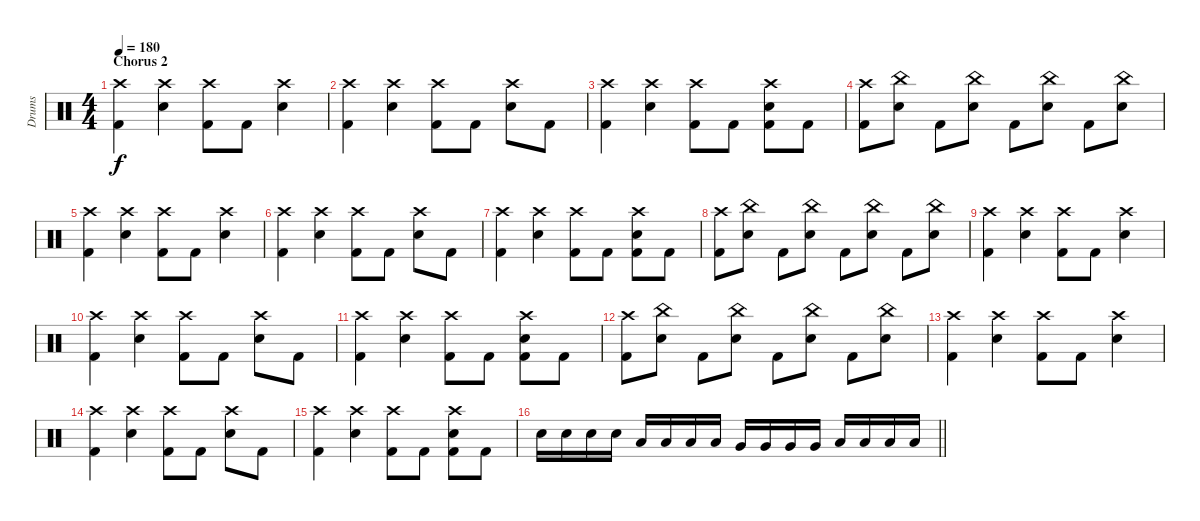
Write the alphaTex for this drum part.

\track ("Drums" "Drums") {instrument percussion}
\staff {score}
\articulation defaults
\ts (4 4)
\section ("" "Chorus 2")
\tempo 180
\clef neutral
\ks c
("Crash high (hit)" "Kick (hit) 2").4{dy f} ("Crash high (hit)" "Electric Snare (hit)").4 ("Crash high (hit)" "Kick (hit) 2").8 "Kick (hit) 2".8 ("Crash high (hit)" "Electric Snare (hit)").4 |
("Crash high (hit)" "Kick (hit) 2").4 ("Crash high (hit)" "Electric Snare (hit)").4 ("Crash high (hit)" "Kick (hit) 2").8 "Kick (hit) 2".8 ("Crash high (hit)" "Electric Snare (hit)").8 "Kick (hit) 2".8 |
("Crash high (hit)" "Kick (hit) 2").4 ("Crash high (hit)" "Electric Snare (hit)").4 ("Crash high (hit)" "Kick (hit) 2").8 "Kick (hit) 2".8 ("Crash high (hit)" "Electric Snare (hit)" "Kick (hit) 2").8 "Kick (hit) 2".8 |
("Crash high (hit)" "Kick (hit) 2").8 ("China (hit)" "Electric Snare (hit)").8 "Kick (hit) 2".8 ("China (hit)" "Electric Snare (hit)").8 "Kick (hit) 2".8 ("China (hit)" "Electric Snare (hit)").8 "Kick (hit) 2".8 ("China (hit)" "Electric Snare (hit)").8 |
("Crash high (hit)" "Kick (hit) 2").4 ("Crash high (hit)" "Electric Snare (hit)").4 ("Crash high (hit)" "Kick (hit) 2").8 "Kick (hit) 2".8 ("Crash high (hit)" "Electric Snare (hit)").4 |
("Crash high (hit)" "Kick (hit) 2").4 ("Crash high (hit)" "Electric Snare (hit)").4 ("Crash high (hit)" "Kick (hit) 2").8 "Kick (hit) 2".8 ("Crash high (hit)" "Electric Snare (hit)").8 "Kick (hit) 2".8 |
("Crash high (hit)" "Kick (hit) 2").4 ("Crash high (hit)" "Electric Snare (hit)").4 ("Crash high (hit)" "Kick (hit) 2").8 "Kick (hit) 2".8 ("Crash high (hit)" "Electric Snare (hit)" "Kick (hit) 2").8 "Kick (hit) 2".8 |
("Crash high (hit)" "Kick (hit) 2").8 ("China (hit)" "Electric Snare (hit)").8 "Kick (hit) 2".8 ("China (hit)" "Electric Snare (hit)").8 "Kick (hit) 2".8 ("China (hit)" "Electric Snare (hit)").8 "Kick (hit) 2".8 ("China (hit)" "Electric Snare (hit)").8 |
("Crash high (hit)" "Kick (hit) 2").4 ("Crash high (hit)" "Electric Snare (hit)").4 ("Crash high (hit)" "Kick (hit) 2").8 "Kick (hit) 2".8 ("Crash high (hit)" "Electric Snare (hit)").4 |
("Crash high (hit)" "Kick (hit) 2").4 ("Crash high (hit)" "Electric Snare (hit)").4 ("Crash high (hit)" "Kick (hit) 2").8 "Kick (hit) 2".8 ("Crash high (hit)" "Electric Snare (hit)").8 "Kick (hit) 2".8 |
("Crash high (hit)" "Kick (hit) 2").4 ("Crash high (hit)" "Electric Snare (hit)").4 ("Crash high (hit)" "Kick (hit) 2").8 "Kick (hit) 2".8 ("Crash high (hit)" "Electric Snare (hit)" "Kick (hit) 2").8 "Kick (hit) 2".8 |
("Crash high (hit)" "Kick (hit) 2").8 ("China (hit)" "Electric Snare (hit)").8 "Kick (hit) 2".8 ("China (hit)" "Electric Snare (hit)").8 "Kick (hit) 2".8 ("China (hit)" "Electric Snare (hit)").8 "Kick (hit) 2".8 ("China (hit)" "Electric Snare (hit)").8 |
("Crash high (hit)" "Kick (hit) 2").4 ("Crash high (hit)" "Electric Snare (hit)").4 ("Crash high (hit)" "Kick (hit) 2").8 "Kick (hit) 2".8 ("Crash high (hit)" "Electric Snare (hit)").4 |
("Crash high (hit)" "Kick (hit) 2").4 ("Crash high (hit)" "Electric Snare (hit)").4 ("Crash high (hit)" "Kick (hit) 2").8 "Kick (hit) 2".8 ("Crash high (hit)" "Electric Snare (hit)").8 "Kick (hit) 2".8 |
("Crash high (hit)" "Kick (hit) 2").4 ("Crash high (hit)" "Electric Snare (hit)").4 ("Crash high (hit)" "Kick (hit) 2").8 "Kick (hit) 2".8 ("Crash high (hit)" "Electric Snare (hit)" "Kick (hit) 2").8 "Kick (hit) 2".8 |
\barLineRight lightlight "Electric Snare (hit)".16 "Electric Snare (hit)".16 "Electric Snare (hit)".16 "Electric Snare (hit)".16 "Low Tom (hit)".16 "Low Tom (hit)".16 "Low Tom (hit)".16 "Low Tom (hit)".16 "Very Low Tom (hit)".16 "Very Low Tom (hit)".16 "Very Low Tom (hit)".16 "Very Low Tom (hit)".16 "Low Floor Tom (hit)".16 "Low Floor Tom (hit)".16 "Low Floor Tom (hit)".16 "Low Floor Tom (hit)".16
